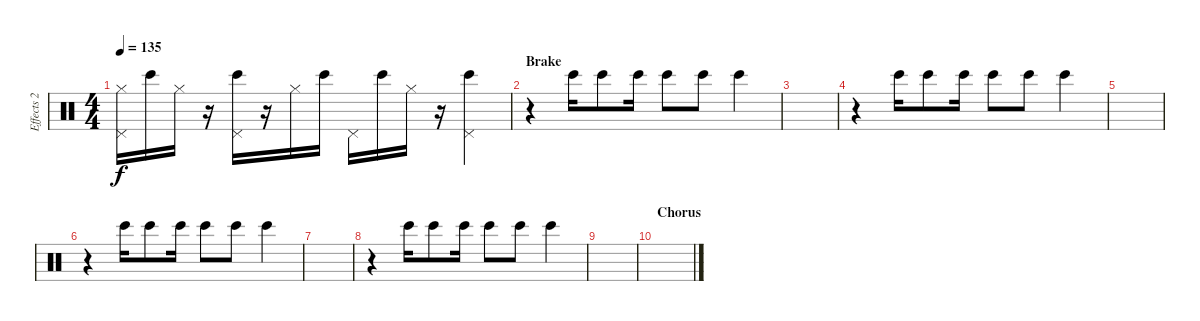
\track ("Effects 2" "Effects 2") {instrument percussion}
\staff {score}
\articulation defaults
\ts (4 4)
\tempo 135
\clef neutral
\ks c
("Pedal Hi-Hat (hit)" "Hi-Hat (closed)").16{dy f} "Bongo High (hit)".16 "Hi-Hat (closed)".16 r.16 ("Pedal Hi-Hat (hit)" "Bongo High (hit)").16 r.16 "Hi-Hat (closed)".16 "Bongo High (hit)".16 "Pedal Hi-Hat (hit)".16 "Bongo High (hit)".16 "Hi-Hat (closed)".16 r.16 ("Pedal Hi-Hat (hit)" "Bongo High (hit)").4 |
\section ("" "Brake")
r.4 "Bongo High (hit)".16 "Bongo High (hit)".8 "Bongo High (hit)".16 "Bongo High (hit)".8 "Bongo High (hit)".8 "Bongo High (hit)".4 |
|
r.4 "Bongo High (hit)".16 "Bongo High (hit)".8 "Bongo High (hit)".16 "Bongo High (hit)".8 "Bongo High (hit)".8 "Bongo High (hit)".4 |
|
r.4 "Bongo High (hit)".16 "Bongo High (hit)".8 "Bongo High (hit)".16 "Bongo High (hit)".8 "Bongo High (hit)".8 "Bongo High (hit)".4 |
|
r.4 "Bongo High (hit)".16 "Bongo High (hit)".8 "Bongo High (hit)".16 "Bongo High (hit)".8 "Bongo High (hit)".8 "Bongo High (hit)".4 |
|
\section ("" "Chorus")
